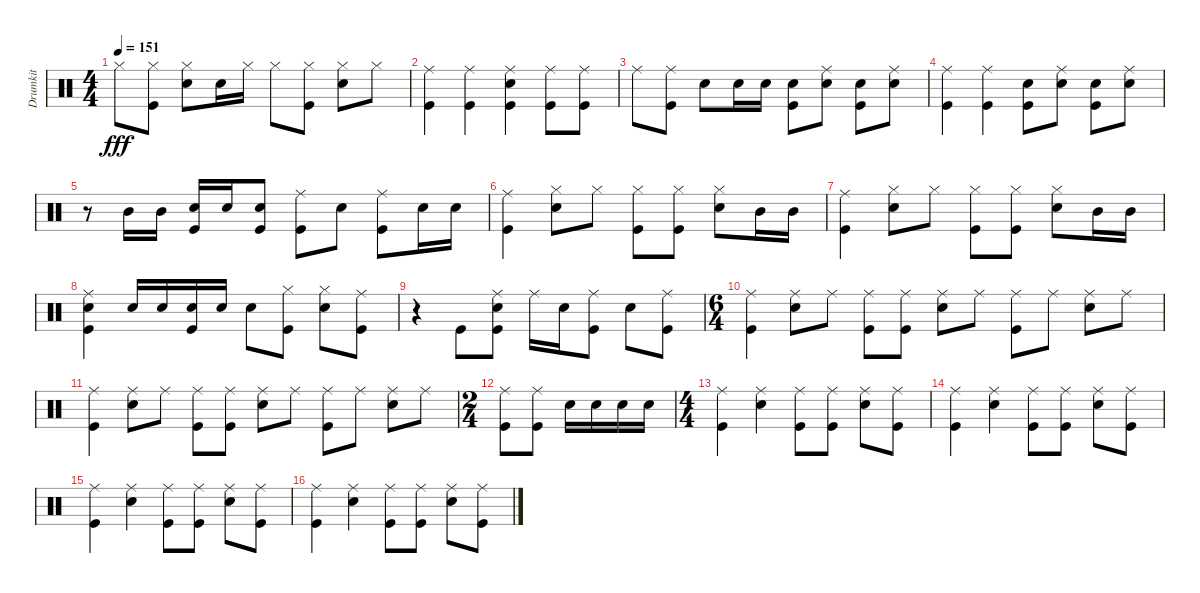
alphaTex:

\track ("Drumkit" "Drumkit") {instrument percussion}
\staff {score}
\articulation defaults
\ts (4 4)
\tempo 151
\clef neutral
\ks c "Hi-Hat (closed)".8{dy fff}
("Kick (hit)" "Hi-Hat (closed)").8 ("Hi-Hat (closed)" "Snare (hit) 2").8 "Snare (hit) 2".16 "Hi-Hat (closed)".16 "Hi-Hat (closed)".8 ("Hi-Hat (closed)" "Kick (hit)").8 ("Hi-Hat (closed)" "Snare (hit) 2").8 "Hi-Hat (closed)".8 |
("Kick (hit)" "Ride (middle)").4 ("Kick (hit)" "Ride (middle)").4 ("Snare (hit) 2" "Kick (hit)" "Ride (middle)").4 ("Ride (middle)" "Kick (hit)").8 ("Ride (middle)" "Kick (hit)").8 |
"Ride (middle)".8 ("Kick (hit)" "Ride (middle)").8 "Snare (hit) 2".8 "Snare (hit) 2".16 "Snare (hit) 2".16 ("Kick (hit)" "Snare (hit) 2").8 ("Ride (middle)" "Snare (hit) 2").8 ("Kick (hit)" "Snare (hit) 2").8 ("Ride (middle)" "Snare (hit) 2").8 |
("Kick (hit)" "Ride (middle)").4 ("Kick (hit)" "Ride (middle)").4 ("Kick (hit)" "Snare (hit) 2").8 ("Ride (middle)" "Snare (hit) 2").8 ("Kick (hit)" "Snare (hit) 2").8 ("Ride (middle)" "Snare (hit) 2").8 |
r.8 "Mid Tom (hit)".16 "Mid Tom (hit)".16 ("Snare (hit) 2" "Kick (hit)").16 "Snare (hit) 2".16 ("Snare (hit) 2" "Kick (hit)").8 ("Ride (middle)" "Kick (hit)").8 "Snare (hit) 2".8 ("Ride (middle)" "Kick (hit)").8 "Snare (hit) 2".16 "Snare (hit) 2".16 |
("Ride (middle)" "Kick (hit)").4 ("Snare (hit) 2" "Hi-Hat (closed)").8 "Hi-Hat (closed)".8 ("Hi-Hat (closed)" "Kick (hit)").8 ("Hi-Hat (closed)" "Kick (hit)").8 ("Hi-Hat (closed)" "Snare (hit) 2").8 "Mid Tom (hit)".16 "Mid Tom (hit)".16 |
("Ride (middle)" "Kick (hit)").4 ("Snare (hit) 2" "Hi-Hat (closed)").8 "Hi-Hat (closed)".8 ("Hi-Hat (closed)" "Kick (hit)").8 ("Hi-Hat (closed)" "Kick (hit)").8 ("Hi-Hat (closed)" "Snare (hit) 2").8 "Mid Tom (hit)".16 "Mid Tom (hit)".16 |
("Ride (middle)" "Snare (hit) 2" "Kick (hit)").4 "Snare (hit) 2".16 "Snare (hit) 2".16 ("Snare (hit) 2" "Kick (hit)").16 "Snare (hit) 2".16 "Snare (hit) 2".8 ("Hi-Hat (closed)" "Kick (hit)").8 ("Hi-Hat (closed)" "Snare (hit) 2").8 ("Ride (middle)" "Kick (hit)").8 |
r.4 "Kick (hit)".8 ("Kick (hit)" "Snare (hit) 2" "Ride (middle)").8 "Ride (middle)".16 "Snare (hit) 2".16 ("Kick (hit)" "Ride (middle)").8 "Snare (hit) 2".8 ("Kick (hit)" "Ride (middle)").8 |
\ts (6 4)
("Kick (hit)" "Ride (middle)").4 ("Snare (hit) 2" "Ride (middle)").8 "Ride (middle)".8 ("Kick (hit)" "Ride (middle)").8 ("Kick (hit)" "Ride (middle)").8 ("Snare (hit) 2" "Ride (middle)").8 "Ride (middle)".8 ("Kick (hit)" "Ride (middle)").8 "Ride (middle)".8 ("Snare (hit) 2" "Ride (middle)").8 "Ride (middle)".8 |
("Kick (hit)" "Ride (middle)").4 ("Snare (hit) 2" "Ride (middle)").8 "Ride (middle)".8 ("Kick (hit)" "Ride (middle)").8 ("Kick (hit)" "Ride (middle)").8 ("Snare (hit) 2" "Ride (middle)").8 "Ride (middle)".8 ("Kick (hit)" "Ride (middle)").8 "Ride (middle)".8 ("Snare (hit) 2" "Ride (middle)").8 "Ride (middle)".8 |
\ts (2 4)
("Kick (hit)" "Ride (middle)").8 ("Kick (hit)" "Ride (middle)").8 "Snare (hit) 2".16 "Snare (hit) 2".16 "Snare (hit) 2".16 "Snare (hit) 2".16 |
\ts (4 4)
("Ride (middle)" "Kick (hit)").4 ("Ride (middle)" "Snare (hit) 2").4 ("Kick (hit)" "Ride (middle)").8 ("Kick (hit)" "Ride (middle)").8 ("Snare (hit) 2" "Ride (middle)").8 ("Kick (hit)" "Ride (middle)").8 |
("Ride (middle)" "Kick (hit)").4 ("Ride (middle)" "Snare (hit) 2").4 ("Kick (hit)" "Ride (middle)").8 ("Kick (hit)" "Ride (middle)").8 ("Snare (hit) 2" "Ride (middle)").8 ("Kick (hit)" "Ride (middle)").8 |
("Ride (middle)" "Kick (hit)").4 ("Ride (middle)" "Snare (hit) 2").4 ("Kick (hit)" "Ride (middle)").8 ("Kick (hit)" "Ride (middle)").8 ("Snare (hit) 2" "Ride (middle)").8 ("Kick (hit)" "Ride (middle)").8 |
("Ride (middle)" "Kick (hit)").4 ("Ride (middle)" "Snare (hit) 2").4 ("Kick (hit)" "Ride (middle)").8 ("Kick (hit)" "Ride (middle)").8 ("Snare (hit) 2" "Ride (middle)").8 ("Kick (hit)" "Ride (middle)").8
